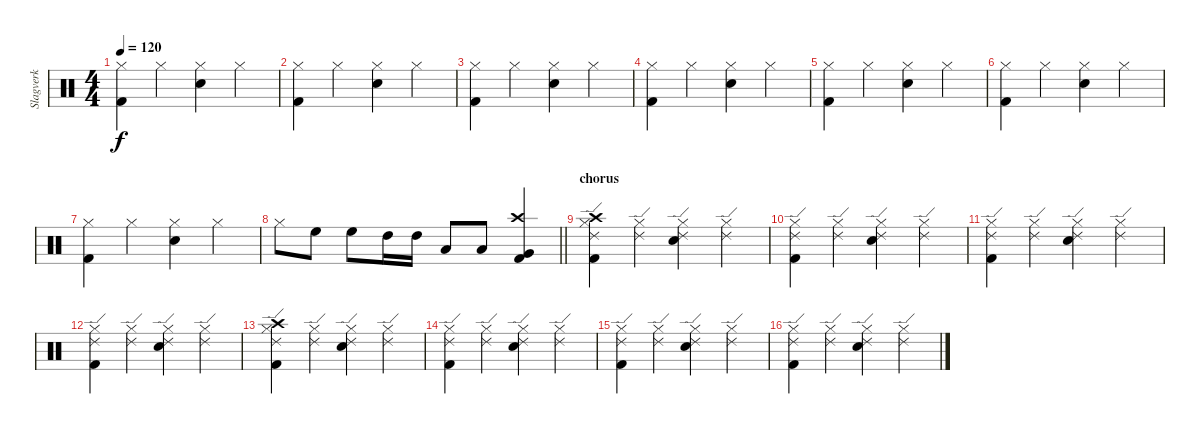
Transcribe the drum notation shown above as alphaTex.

\track ("Slagverk" "Slagverk") {instrument percussion}
\staff {score}
\articulation defaults
\ts (4 4)
\tempo 120
\clef neutral
\ks c
("Hi-Hat (closed)" "Kick (hit) 2").4{dy f} "Hi-Hat (closed)".4 ("Hi-Hat (closed)" "Snare (hit) 2").4 "Hi-Hat (closed)".4 |
("Hi-Hat (closed)" "Kick (hit) 2").4 "Hi-Hat (closed)".4 ("Hi-Hat (closed)" "Snare (hit) 2").4 "Hi-Hat (closed)".4 |
("Hi-Hat (closed)" "Kick (hit) 2").4 "Hi-Hat (closed)".4 ("Hi-Hat (closed)" "Snare (hit) 2").4 "Hi-Hat (closed)".4 |
("Hi-Hat (closed)" "Kick (hit) 2").4 "Hi-Hat (closed)".4 ("Hi-Hat (closed)" "Snare (hit) 2").4 "Hi-Hat (closed)".4 |
("Hi-Hat (closed)" "Kick (hit) 2").4 "Hi-Hat (closed)".4 ("Hi-Hat (closed)" "Snare (hit) 2").4 "Hi-Hat (closed)".4 |
("Hi-Hat (closed)" "Kick (hit) 2").4 "Hi-Hat (closed)".4 ("Hi-Hat (closed)" "Snare (hit) 2").4 "Hi-Hat (closed)".4 |
("Hi-Hat (closed)" "Kick (hit) 2").4 "Hi-Hat (closed)".4 ("Hi-Hat (closed)" "Snare (hit) 2").4 "Hi-Hat (closed)".4 |
\barLineRight lightlight "Hi-Hat (closed)".8 "High Floor Tom (hit)".8 "High Floor Tom (hit)".8 "High Tom (hit)".16 "High Tom (hit)".16 "Low Tom (hit)".8 "Low Tom (hit)".8
("Crash high (hit)" "Very Low Tom (hit)" "Kick (hit) 2").4 |
\section ("" "chorus")
("Hi-Hat (closed)" "Kick (hit) 2" "Crash high (hit)" "Ride (edge) 2").4 ("Hi-Hat (closed)" "Ride (edge) 2").4 ("Hi-Hat (closed)" "Snare (hit) 2" "Ride (edge) 2").4 ("Hi-Hat (closed)" "Ride (edge) 2").4 |
("Hi-Hat (closed)" "Kick (hit) 2" "Ride (edge) 2").4 ("Hi-Hat (closed)" "Ride (edge) 2").4 ("Hi-Hat (closed)" "Snare (hit) 2" "Ride (edge) 2").4 ("Hi-Hat (closed)" "Ride (edge) 2").4 |
("Hi-Hat (closed)" "Kick (hit) 2" "Ride (edge) 2").4 ("Hi-Hat (closed)" "Ride (edge) 2").4 ("Hi-Hat (closed)" "Snare (hit) 2" "Ride (edge) 2").4 ("Hi-Hat (closed)" "Ride (edge) 2").4 |
("Hi-Hat (closed)" "Kick (hit) 2" "Ride (edge) 2").4 ("Hi-Hat (closed)" "Ride (edge) 2").4 ("Hi-Hat (closed)" "Snare (hit) 2" "Ride (edge) 2").4 ("Hi-Hat (closed)" "Ride (edge) 2").4 |
("Hi-Hat (closed)" "Kick (hit) 2" "Crash high (hit)" "Ride (edge) 2").4 ("Hi-Hat (closed)" "Ride (edge) 2").4 ("Hi-Hat (closed)" "Snare (hit) 2" "Ride (edge) 2").4 ("Hi-Hat (closed)" "Ride (edge) 2").4 |
("Hi-Hat (closed)" "Kick (hit) 2" "Ride (edge) 2").4 ("Hi-Hat (closed)" "Ride (edge) 2").4 ("Hi-Hat (closed)" "Snare (hit) 2" "Ride (edge) 2").4 ("Hi-Hat (closed)" "Ride (edge) 2").4 |
("Hi-Hat (closed)" "Kick (hit) 2" "Ride (edge) 2").4 ("Hi-Hat (closed)" "Ride (edge) 2").4 ("Hi-Hat (closed)" "Snare (hit) 2" "Ride (edge) 2").4 ("Hi-Hat (closed)" "Ride (edge) 2").4 |
("Hi-Hat (closed)" "Kick (hit) 2" "Ride (edge) 2").4 ("Hi-Hat (closed)" "Ride (edge) 2").4 ("Hi-Hat (closed)" "Snare (hit) 2" "Ride (edge) 2").4 ("Hi-Hat (closed)" "Ride (edge) 2").4
